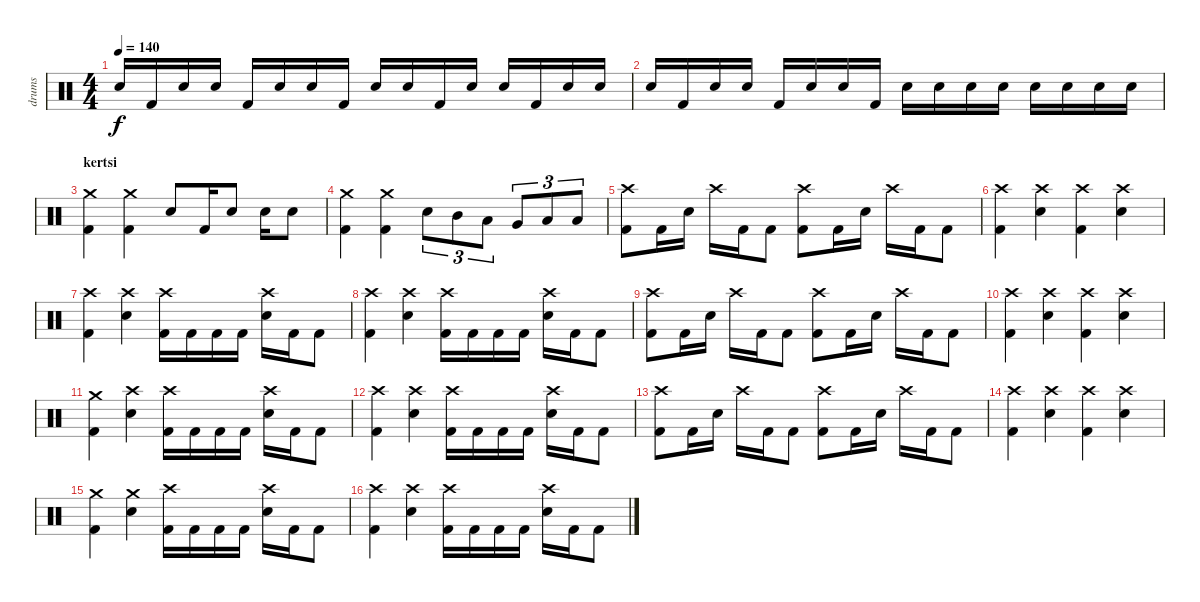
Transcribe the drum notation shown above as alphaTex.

\track ("drums" "drums") {instrument percussion}
\staff {score}
\articulation defaults
\ts (4 4)
\tempo 140
\clef neutral
\ks c "Snare (hit) 2".16{dy f} "Kick (hit) 2".16 "Snare (hit) 2".16 "Snare (hit) 2".16 "Kick (hit) 2".16 "Snare (hit) 2".16 "Snare (hit) 2".16 "Kick (hit) 2".16 "Snare (hit) 2".16 "Snare (hit) 2".16 "Kick (hit) 2".16 "Snare (hit) 2".16 "Snare (hit) 2".16 "Kick (hit) 2".16 "Snare (hit) 2".16 "Snare (hit) 2".16
|
"Snare (hit) 2".16 "Kick (hit) 2".16 "Snare (hit) 2".16 "Snare (hit) 2".16 "Kick (hit) 2".16 "Snare (hit) 2".16 "Snare (hit) 2".16 "Kick (hit) 2".16 "Snare (hit) 2".16 "Snare (hit) 2".16 "Snare (hit) 2".16 "Snare (hit) 2".16 "Snare (hit) 2".16 "Snare (hit) 2".16 "Snare (hit) 2".16 "Snare (hit) 2".16 |
\section ("" "kertsi")
("Kick (hit) 2" "Crash medium (hit)").4 ("Kick (hit) 2" "Crash medium (hit)").4 "Snare (hit) 2".8 "Kick (hit) 2".16 "Snare (hit) 2".8 "Snare (hit) 2".16 "Snare (hit) 2".8 |
("Kick (hit) 2" "Crash medium (hit)").4 ("Kick (hit) 2" "Crash medium (hit)").4 "Snare (hit) 2".8{tu (3 2)} "Mid Tom (hit)".8{tu (3 2)} "Low Tom (hit)".8{tu (3 2)} "Very Low Tom (hit)".8{tu (3 2)} "Low Floor Tom (hit)".8{tu (3 2)} "Low Floor Tom (hit)".8{tu (3 2)} |
("Kick (hit) 2" "Crash high (hit)").8 "Kick (hit) 2".16 "Snare (hit) 2".16 "Crash high (hit)".16 "Kick (hit) 2".16 "Kick (hit) 2".8 ("Kick (hit) 2" "Crash high (hit)").8 "Kick (hit) 2".16 "Snare (hit) 2".16 "Crash high (hit)".16 "Kick (hit) 2".16 "Kick (hit) 2".8 |
("Kick (hit) 2" "Crash high (hit)").4 ("Crash high (hit)" "Snare (hit) 2").4 ("Kick (hit) 2" "Crash high (hit)").4 ("Crash high (hit)" "Snare (hit) 2").4 |
("Kick (hit) 2" "Crash high (hit)").4 ("Crash high (hit)" "Snare (hit) 2").4 ("Kick (hit) 2" "Crash high (hit)").16 "Kick (hit) 2".16 "Kick (hit) 2".16 "Kick (hit) 2".16 ("Crash high (hit)" "Snare (hit) 2").16 "Kick (hit) 2".16 "Kick (hit) 2".8 |
("Kick (hit) 2" "Crash high (hit)").4 ("Crash high (hit)" "Snare (hit) 2").4 ("Kick (hit) 2" "Crash high (hit)").16 "Kick (hit) 2".16 "Kick (hit) 2".16 "Kick (hit) 2".16 ("Crash high (hit)" "Snare (hit) 2").16 "Kick (hit) 2".16 "Kick (hit) 2".8 |
("Kick (hit) 2" "Crash high (hit)").8 "Kick (hit) 2".16 "Snare (hit) 2".16 "Crash high (hit)".16 "Kick (hit) 2".16 "Kick (hit) 2".8 ("Kick (hit) 2" "Crash high (hit)").8 "Kick (hit) 2".16 "Snare (hit) 2".16 "Crash high (hit)".16 "Kick (hit) 2".16 "Kick (hit) 2".8 |
("Kick (hit) 2" "Crash high (hit)").4 ("Crash high (hit)" "Snare (hit) 2").4 ("Kick (hit) 2" "Crash high (hit)").4 ("Crash high (hit)" "Snare (hit) 2").4 |
("Kick (hit) 2" "Crash medium (hit)").4 ("Crash high (hit)" "Snare (hit) 2").4 ("Kick (hit) 2" "Crash high (hit)").16 "Kick (hit) 2".16 "Kick (hit) 2".16 "Kick (hit) 2".16 ("Crash high (hit)" "Snare (hit) 2").16 "Kick (hit) 2".16 "Kick (hit) 2".8 |
("Kick (hit) 2" "Crash high (hit)").4 ("Crash high (hit)" "Snare (hit) 2").4 ("Kick (hit) 2" "Crash high (hit)").16 "Kick (hit) 2".16 "Kick (hit) 2".16 "Kick (hit) 2".16 ("Crash high (hit)" "Snare (hit) 2").16 "Kick (hit) 2".16 "Kick (hit) 2".8 |
("Kick (hit) 2" "Crash high (hit)").8 "Kick (hit) 2".16 "Snare (hit) 2".16 "Crash high (hit)".16 "Kick (hit) 2".16 "Kick (hit) 2".8 ("Kick (hit) 2" "Crash high (hit)").8 "Kick (hit) 2".16 "Snare (hit) 2".16 "Crash high (hit)".16 "Kick (hit) 2".16 "Kick (hit) 2".8 |
("Kick (hit) 2" "Crash high (hit)").4 ("Crash high (hit)" "Snare (hit) 2").4 ("Kick (hit) 2" "Crash high (hit)").4 ("Crash high (hit)" "Snare (hit) 2").4 |
("Kick (hit) 2" "Crash medium (hit)").4 ("Crash medium (hit)" "Snare (hit) 2").4 ("Kick (hit) 2" "Crash high (hit)").16 "Kick (hit) 2".16 "Kick (hit) 2".16 "Kick (hit) 2".16 ("Crash high (hit)" "Snare (hit) 2").16 "Kick (hit) 2".16 "Kick (hit) 2".8 |
("Kick (hit) 2" "Crash high (hit)").4 ("Crash high (hit)" "Snare (hit) 2").4 ("Kick (hit) 2" "Crash high (hit)").16 "Kick (hit) 2".16 "Kick (hit) 2".16 "Kick (hit) 2".16 ("Crash high (hit)" "Snare (hit) 2").16 "Kick (hit) 2".16 "Kick (hit) 2".8
